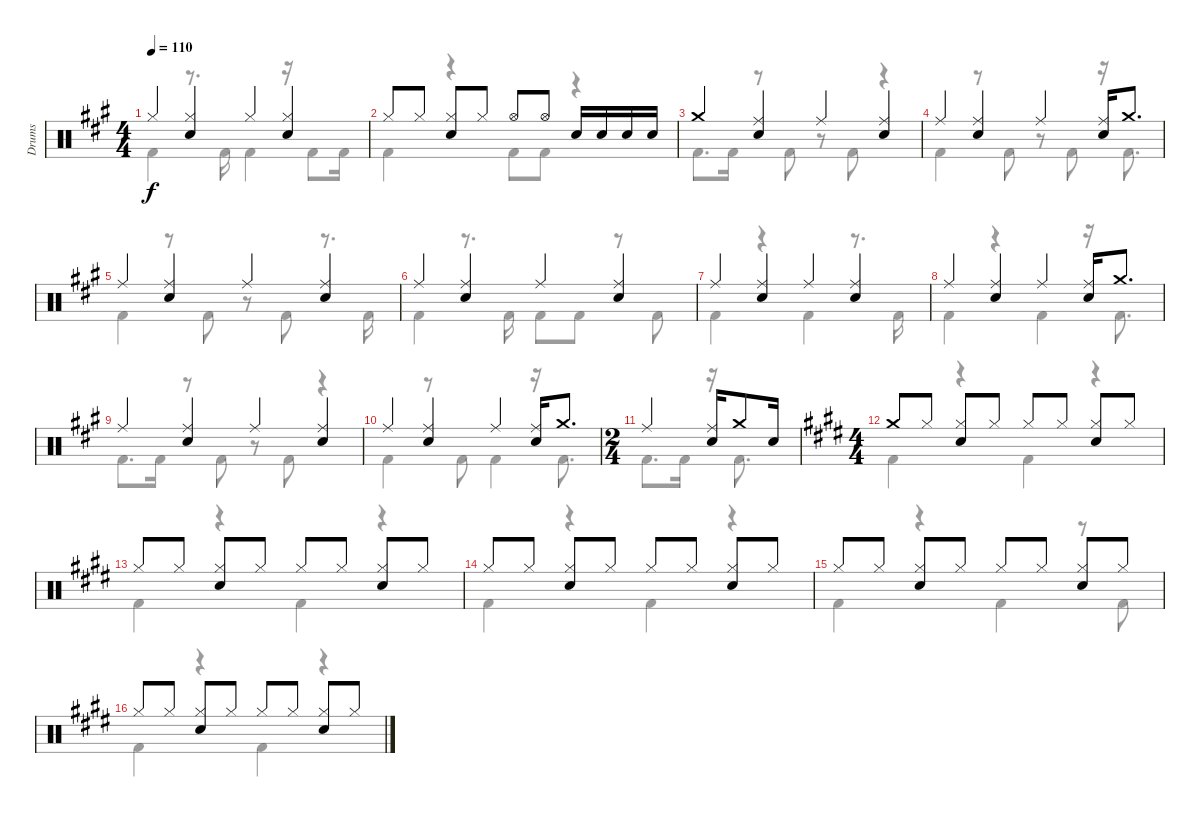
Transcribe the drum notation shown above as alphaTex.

\track ("Drums" "Drums") {instrument percussion}
\staff {score}
\articulation defaults
\voice
\ts (4 4)
\tempo 110
\clef neutral
\ks a "Hi-Hat (closed)".4{dy f}
("Hi-Hat (closed)" "Snare (hit) 2").4 "Hi-Hat (closed)".4 ("Hi-Hat (closed)" "Snare (hit) 2").4 |
"Hi-Hat (closed)".8 "Hi-Hat (closed)".8 ("Hi-Hat (closed)" "Snare (hit) 2").8 "Hi-Hat (closed)".8 "Hi-Hat (open)".8 "Hi-Hat (open)".8 "Snare (hit) 2".16 "Snare (hit) 2".16 "Snare (hit) 2".16 "Snare (hit) 2".16 |
"Crash medium (hit)".4 ("Ride (middle)" "Snare (hit) 2").4 "Ride (middle)".4 ("Ride (middle)" "Snare (hit) 2").4 |
"Ride (middle)".4 ("Ride (middle)" "Snare (hit) 2").4 "Ride (middle)".4 ("Ride (middle)" "Snare (hit) 2").16 "Crash medium (hit)".8{d} |
"Ride (middle)".4 ("Ride (middle)" "Snare (hit) 2").4 "Ride (middle)".4 ("Ride (middle)" "Snare (hit) 2").4 |
"Ride (middle)".4 ("Ride (middle)" "Snare (hit) 2").4 "Ride (middle)".4 ("Ride (middle)" "Snare (hit) 2").4 |
"Ride (middle)".4 ("Ride (middle)" "Snare (hit) 2").4 "Ride (middle)".4 ("Ride (middle)" "Snare (hit) 2").4 |
"Ride (middle)".4 ("Ride (middle)" "Snare (hit) 2").4 "Ride (middle)".4 ("Ride (middle)" "Snare (hit) 2").16 "Crash medium (hit)".8{d} |
"Ride (middle)".4 ("Ride (middle)" "Snare (hit) 2").4 "Ride (middle)".4 ("Ride (middle)" "Snare (hit) 2").4 |
"Ride (middle)".4 ("Ride (middle)" "Snare (hit) 2").4 "Ride (middle)".4 ("Ride (middle)" "Snare (hit) 2").16 "Crash medium (hit)".8{d} |
\ts (2 4)
"Ride (middle)".4 ("Ride (middle)" "Snare (hit) 2").16 "Crash medium (hit)".8 "Snare (hit) 2".16 |
\ts (4 4)
\ks e "Crash medium (hit)".8 "Hi-Hat (closed)".8
("Hi-Hat (closed)" "Snare (hit) 2").8 "Hi-Hat (closed)".8 "Hi-Hat (closed)".8 "Hi-Hat (closed)".8 ("Hi-Hat (closed)" "Snare (hit) 2").8 "Hi-Hat (closed)".8 |
"Hi-Hat (closed)".8 "Hi-Hat (closed)".8 ("Hi-Hat (closed)" "Snare (hit) 2").8 "Hi-Hat (closed)".8 "Hi-Hat (closed)".8 "Hi-Hat (closed)".8 ("Hi-Hat (closed)" "Snare (hit) 2").8 "Hi-Hat (closed)".8 |
"Hi-Hat (closed)".8 "Hi-Hat (closed)".8 ("Hi-Hat (closed)" "Snare (hit) 2").8 "Hi-Hat (closed)".8 "Hi-Hat (closed)".8 "Hi-Hat (closed)".8 ("Hi-Hat (closed)" "Snare (hit) 2").8 "Hi-Hat (closed)".8 |
"Hi-Hat (closed)".8 "Hi-Hat (closed)".8 ("Hi-Hat (closed)" "Snare (hit) 2").8 "Hi-Hat (closed)".8 "Hi-Hat (closed)".8 "Hi-Hat (closed)".8 ("Hi-Hat (closed)" "Snare (hit) 2").8 "Hi-Hat (closed)".8 |
"Hi-Hat (closed)".8 "Hi-Hat (closed)".8 ("Hi-Hat (closed)" "Snare (hit) 2").8 "Hi-Hat (closed)".8 "Hi-Hat (closed)".8 "Hi-Hat (closed)".8 ("Hi-Hat (closed)" "Snare (hit) 2").8 "Hi-Hat (closed)".8
\voice
\clef neutral
\ottava regular
\simile none
\ks a "Kick (hit) 2".4{dy f}
r.8{d} "Kick (hit) 2".16 "Kick (hit) 2".4 r.16 "Kick (hit) 2".8 "Kick (hit) 2".16 |
"Kick (hit) 2".4 r.4 "Kick (hit) 2".8 "Kick (hit) 2".8 r.4 |
"Kick (hit) 2".8{d} "Kick (hit) 2".16 r.8 "Kick (hit) 2".8 r.8 "Kick (hit) 2".8 r.4 |
"Kick (hit) 2".4 r.8 "Kick (hit) 2".8 r.8 "Kick (hit) 2".8 r.16 "Kick (hit) 2".8{d} |
"Kick (hit) 2".4 r.8 "Kick (hit) 2".8 r.8 "Kick (hit) 2".8 r.8{d} "Kick (hit) 2".16 |
"Kick (hit) 2".4 r.8{d} "Kick (hit) 2".16 "Kick (hit) 2".8 "Kick (hit) 2".8 r.8 "Kick (hit) 2".8 |
"Kick (hit) 2".4 r.4 "Kick (hit) 2".4 r.8{d} "Kick (hit) 2".16 |
"Kick (hit) 2".4 r.4 "Kick (hit) 2".4 r.16 "Kick (hit) 2".8{d} |
"Kick (hit) 2".8{d} "Kick (hit) 2".16 r.8 "Kick (hit) 2".8 r.8 "Kick (hit) 2".8 r.4 |
"Kick (hit) 2".4 r.8 "Kick (hit) 2".8 "Kick (hit) 2".4 r.16 "Kick (hit) 2".8{d} |
"Kick (hit) 2".8{d} "Kick (hit) 2".16 r.16 "Kick (hit) 2".8{d} |
\ks e "Kick (hit) 2".4
r.4 "Kick (hit) 2".4 r.4 |
"Kick (hit) 2".4 r.4 "Kick (hit) 2".4 r.4 |
"Kick (hit) 2".4 r.4 "Kick (hit) 2".4 r.4 |
"Kick (hit) 2".4 r.4 "Kick (hit) 2".4 r.8 "Kick (hit) 2".8 |
"Kick (hit) 2".4 r.4 "Kick (hit) 2".4 r.4
